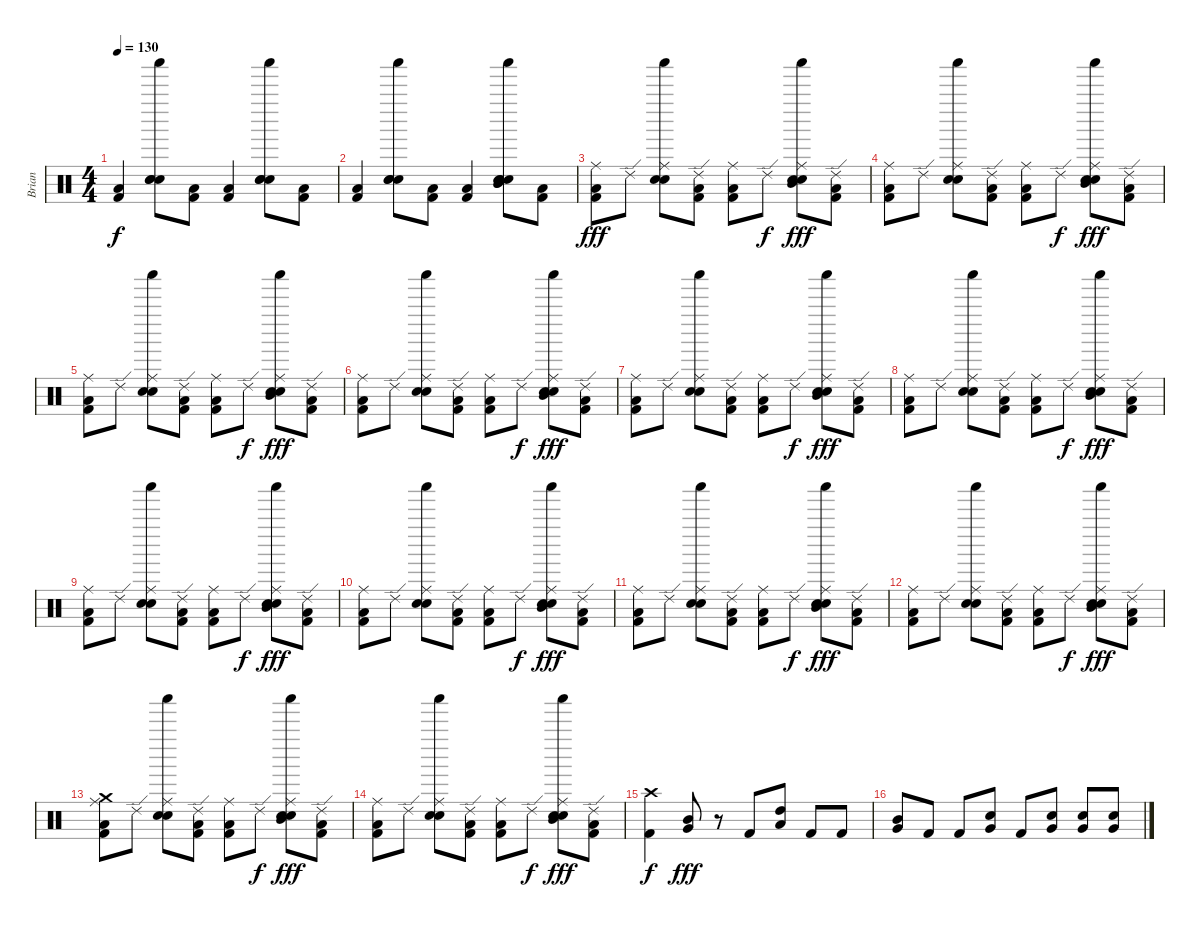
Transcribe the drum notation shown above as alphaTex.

\track ("Brian" "Brian") {instrument percussion}
\staff {score}
\articulation defaults
\ts (4 4)
\tempo 130
\clef neutral
\ks c
("Kick (hit) 2" "Low Tom (hit)").4{dy f} ("Shaker (hit)" "Snare (hit) 2" "Hand Clap (hit)" "Hand Clap (hit)").8 ("Kick (hit) 2" "Low Tom (hit)").8 ("Kick (hit) 2" "Low Tom (hit)").4 ("Shaker (hit)" "Snare (hit) 2" "Hand Clap (hit)" "Hand Clap (hit)").8 ("Kick (hit) 2" "Low Tom (hit)").8 |
("Kick (hit) 2" "Low Tom (hit)").4 ("Shaker (hit)" "Snare (hit) 2" "Hand Clap (hit)" "Hand Clap (hit)").8 ("Kick (hit) 2" "Low Tom (hit)").8 ("Kick (hit) 2" "Low Tom (hit)").4 ("Shaker (hit)" "Snare (hit) 2" "Hand Clap (hit)" "Hand Clap (hit)" "Mid Tom (hit)" "Mid Tom (hit)").8 ("Kick (hit) 2" "Low Tom (hit)").8 |
("Ride (middle)" "Low Tom (hit)" "Kick (hit) 2").8{dy fff} "Ride (edge) 2".8 ("Shaker (hit)" "Ride (middle)" "Hand Clap (hit)" "Snare (hit) 2").8 ("Ride (edge) 2" "Low Tom (hit)" "Kick (hit) 2").8 ("Ride (middle)" "Low Tom (hit)" "Kick (hit) 2").8 "Ride (edge) 2".8{dy f} ("Shaker (hit)" "Ride (middle)" "Hand Clap (hit)" "Snare (hit) 2" "Mid Tom (hit)").8{dy fff} ("Ride (edge) 2" "Kick (hit) 2" "Low Tom (hit)").8 |
("Ride (middle)" "Low Tom (hit)" "Kick (hit) 2").8 "Ride (edge) 2".8 ("Shaker (hit)" "Ride (middle)" "Hand Clap (hit)" "Snare (hit) 2").8 ("Ride (edge) 2" "Low Tom (hit)" "Kick (hit) 2").8 ("Ride (middle)" "Low Tom (hit)" "Kick (hit) 2").8 "Ride (edge) 2".8{dy f} ("Shaker (hit)" "Ride (middle)" "Hand Clap (hit)" "Snare (hit) 2" "Mid Tom (hit)").8{dy fff} ("Ride (edge) 2" "Kick (hit) 2" "Low Tom (hit)").8 |
("Ride (middle)" "Low Tom (hit)" "Kick (hit) 2").8 "Ride (edge) 2".8 ("Shaker (hit)" "Ride (middle)" "Hand Clap (hit)" "Snare (hit) 2").8 ("Ride (edge) 2" "Low Tom (hit)" "Kick (hit) 2").8 ("Ride (middle)" "Low Tom (hit)" "Kick (hit) 2").8 "Ride (edge) 2".8{dy f} ("Shaker (hit)" "Ride (middle)" "Hand Clap (hit)" "Snare (hit) 2" "Mid Tom (hit)").8{dy fff} ("Ride (edge) 2" "Kick (hit) 2" "Low Tom (hit)").8 |
("Ride (middle)" "Low Tom (hit)" "Kick (hit) 2").8 "Ride (edge) 2".8 ("Shaker (hit)" "Ride (middle)" "Hand Clap (hit)" "Snare (hit) 2").8 ("Ride (edge) 2" "Low Tom (hit)" "Kick (hit) 2").8 ("Ride (middle)" "Low Tom (hit)" "Kick (hit) 2").8 "Ride (edge) 2".8{dy f} ("Shaker (hit)" "Ride (middle)" "Hand Clap (hit)" "Snare (hit) 2" "Mid Tom (hit)").8{dy fff} ("Ride (edge) 2" "Kick (hit) 2" "Low Tom (hit)").8 |
("Ride (middle)" "Low Tom (hit)" "Kick (hit) 2").8 "Ride (edge) 2".8 ("Shaker (hit)" "Ride (middle)" "Hand Clap (hit)" "Snare (hit) 2").8 ("Ride (edge) 2" "Low Tom (hit)" "Kick (hit) 2").8 ("Ride (middle)" "Low Tom (hit)" "Kick (hit) 2").8 "Ride (edge) 2".8{dy f} ("Shaker (hit)" "Ride (middle)" "Hand Clap (hit)" "Snare (hit) 2" "Mid Tom (hit)").8{dy fff} ("Ride (edge) 2" "Kick (hit) 2" "Low Tom (hit)").8 |
("Ride (middle)" "Low Tom (hit)" "Kick (hit) 2").8 "Ride (edge) 2".8 ("Shaker (hit)" "Ride (middle)" "Hand Clap (hit)" "Snare (hit) 2").8 ("Ride (edge) 2" "Low Tom (hit)" "Kick (hit) 2").8 ("Ride (middle)" "Low Tom (hit)" "Kick (hit) 2").8 "Ride (edge) 2".8{dy f} ("Shaker (hit)" "Ride (middle)" "Hand Clap (hit)" "Snare (hit) 2" "Mid Tom (hit)").8{dy fff} ("Ride (edge) 2" "Kick (hit) 2" "Low Tom (hit)").8 |
("Ride (middle)" "Low Tom (hit)" "Kick (hit) 2").8 "Ride (edge) 2".8 ("Shaker (hit)" "Ride (middle)" "Hand Clap (hit)" "Snare (hit) 2").8 ("Ride (edge) 2" "Low Tom (hit)" "Kick (hit) 2").8 ("Ride (middle)" "Low Tom (hit)" "Kick (hit) 2").8 "Ride (edge) 2".8{dy f} ("Shaker (hit)" "Ride (middle)" "Hand Clap (hit)" "Snare (hit) 2" "Mid Tom (hit)").8{dy fff} ("Ride (edge) 2" "Kick (hit) 2" "Low Tom (hit)").8 |
("Ride (middle)" "Low Tom (hit)" "Kick (hit) 2").8 "Ride (edge) 2".8 ("Shaker (hit)" "Ride (middle)" "Hand Clap (hit)" "Snare (hit) 2").8 ("Ride (edge) 2" "Low Tom (hit)" "Kick (hit) 2").8 ("Ride (middle)" "Low Tom (hit)" "Kick (hit) 2").8 "Ride (edge) 2".8{dy f} ("Shaker (hit)" "Ride (middle)" "Hand Clap (hit)" "Snare (hit) 2" "Mid Tom (hit)").8{dy fff} ("Ride (edge) 2" "Kick (hit) 2" "Low Tom (hit)").8 |
("Ride (middle)" "Low Tom (hit)" "Kick (hit) 2").8 "Ride (edge) 2".8 ("Shaker (hit)" "Ride (middle)" "Hand Clap (hit)" "Snare (hit) 2").8 ("Ride (edge) 2" "Low Tom (hit)" "Kick (hit) 2").8 ("Ride (middle)" "Low Tom (hit)" "Kick (hit) 2").8 "Ride (edge) 2".8{dy f} ("Shaker (hit)" "Ride (middle)" "Hand Clap (hit)" "Snare (hit) 2" "Mid Tom (hit)").8{dy fff} ("Ride (edge) 2" "Kick (hit) 2" "Low Tom (hit)").8 |
("Ride (middle)" "Low Tom (hit)" "Kick (hit) 2").8 "Ride (edge) 2".8 ("Shaker (hit)" "Ride (middle)" "Hand Clap (hit)" "Snare (hit) 2").8 ("Ride (edge) 2" "Low Tom (hit)" "Kick (hit) 2").8 ("Ride (middle)" "Low Tom (hit)" "Kick (hit) 2").8 "Ride (edge) 2".8{dy f} ("Shaker (hit)" "Ride (middle)" "Hand Clap (hit)" "Snare (hit) 2" "Mid Tom (hit)").8{dy fff} ("Ride (edge) 2" "Kick (hit) 2" "Low Tom (hit)").8 |
("Crash medium (hit)" "Ride (middle)" "Low Tom (hit)" "Kick (hit) 2").8 "Ride (edge) 2".8 ("Shaker (hit)" "Ride (middle)" "Hand Clap (hit)" "Snare (hit) 2").8 ("Ride (edge) 2" "Low Tom (hit)" "Kick (hit) 2").8 ("Ride (middle)" "Low Tom (hit)" "Kick (hit) 2").8 "Ride (edge) 2".8{dy f} ("Shaker (hit)" "Ride (middle)" "Hand Clap (hit)" "Snare (hit) 2" "Mid Tom (hit)").8{dy fff} ("Ride (edge) 2" "Kick (hit) 2" "Low Tom (hit)").8 |
("Ride (middle)" "Low Tom (hit)" "Kick (hit) 2").8 "Ride (edge) 2".8 ("Shaker (hit)" "Ride (middle)" "Hand Clap (hit)" "Snare (hit) 2").8 ("Ride (edge) 2" "Low Tom (hit)" "Kick (hit) 2").8 ("Ride (middle)" "Low Tom (hit)" "Kick (hit) 2").8 "Ride (edge) 2".8{dy f} ("Shaker (hit)" "Ride (middle)" "Hand Clap (hit)" "Snare (hit) 2" "Mid Tom (hit)").8{dy fff} ("Ride (edge) 2" "Kick (hit) 2" "Low Tom (hit)").8 |
("Crash high (hit)" "Kick (hit) 2").4{dy f} ("Mid Tom (hit)" "Very Low Tom (hit)").8{dy fff} r.8 "Kick (hit) 2".8 ("High Tom (hit)" "Low Tom (hit)").8 "Kick (hit) 2".8 "Kick (hit) 2".8 |
("Mid Tom (hit)" "Very Low Tom (hit)").8 "Kick (hit) 2".8 "Kick (hit) 2".8 ("Very Low Tom (hit)" "Electric Snare (hit)").8 "Kick (hit) 2".8 ("Very Low Tom (hit)" "Electric Snare (hit)").8 ("Very Low Tom (hit)" "Electric Snare (hit)").8 ("Very Low Tom (hit)" "Electric Snare (hit)").8
